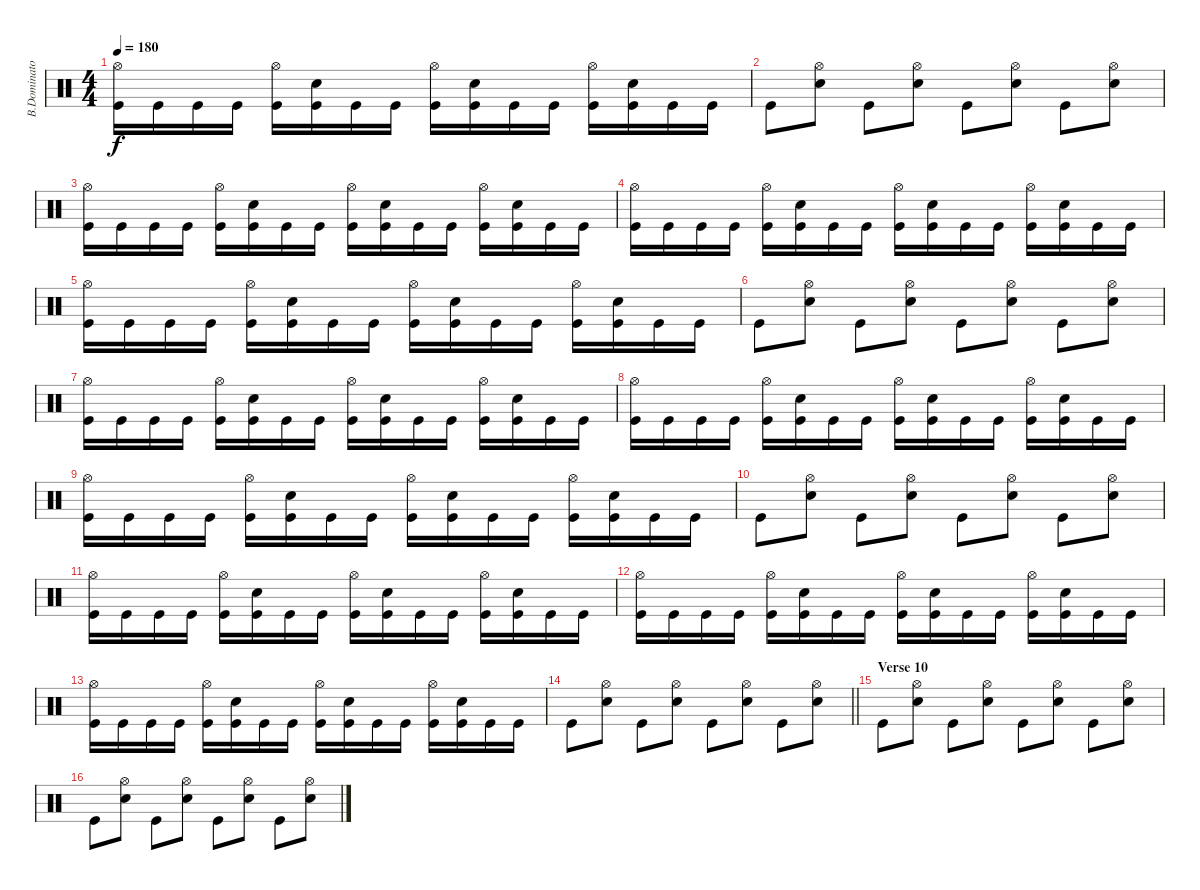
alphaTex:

\track ("B.Dominator" "B.Dominato") {instrument percussion}
\staff {score}
\articulation defaults
\ts (4 4)
\tempo 180
\clef neutral
\ks c
("Hi-Hat (open)" "Kick (hit)").16{dy f} "Kick (hit)".16 "Kick (hit)".16 "Kick (hit)".16 ("Hi-Hat (open)" "Kick (hit)").16 ("Snare (hit) 2" "Kick (hit)").16 "Kick (hit)".16 "Kick (hit)".16 ("Hi-Hat (open)" "Kick (hit)").16 ("Snare (hit) 2" "Kick (hit)").16 "Kick (hit)".16 "Kick (hit)".16 ("Hi-Hat (open)" "Kick (hit)").16 ("Snare (hit) 2" "Kick (hit)").16 "Kick (hit)".16 "Kick (hit)".16 |
"Kick (hit)".8 ("Hi-Hat (open)" "Snare (hit) 2").8 "Kick (hit)".8 ("Hi-Hat (open)" "Snare (hit) 2").8 "Kick (hit)".8 ("Hi-Hat (open)" "Snare (hit) 2").8 "Kick (hit)".8 ("Hi-Hat (open)" "Snare (hit) 2").8 |
("Hi-Hat (open)" "Kick (hit)").16 "Kick (hit)".16 "Kick (hit)".16 "Kick (hit)".16 ("Hi-Hat (open)" "Kick (hit)").16 ("Snare (hit) 2" "Kick (hit)").16 "Kick (hit)".16 "Kick (hit)".16 ("Hi-Hat (open)" "Kick (hit)").16 ("Snare (hit) 2" "Kick (hit)").16 "Kick (hit)".16 "Kick (hit)".16 ("Hi-Hat (open)" "Kick (hit)").16 ("Snare (hit) 2" "Kick (hit)").16 "Kick (hit)".16 "Kick (hit)".16 |
("Hi-Hat (open)" "Kick (hit)").16 "Kick (hit)".16 "Kick (hit)".16 "Kick (hit)".16 ("Hi-Hat (open)" "Kick (hit)").16 ("Snare (hit) 2" "Kick (hit)").16 "Kick (hit)".16 "Kick (hit)".16 ("Hi-Hat (open)" "Kick (hit)").16 ("Snare (hit) 2" "Kick (hit)").16 "Kick (hit)".16 "Kick (hit)".16 ("Hi-Hat (open)" "Kick (hit)").16 ("Snare (hit) 2" "Kick (hit)").16 "Kick (hit)".16 "Kick (hit)".16 |
("Hi-Hat (open)" "Kick (hit)").16 "Kick (hit)".16 "Kick (hit)".16 "Kick (hit)".16 ("Hi-Hat (open)" "Kick (hit)").16 ("Snare (hit) 2" "Kick (hit)").16 "Kick (hit)".16 "Kick (hit)".16 ("Hi-Hat (open)" "Kick (hit)").16 ("Snare (hit) 2" "Kick (hit)").16 "Kick (hit)".16 "Kick (hit)".16 ("Hi-Hat (open)" "Kick (hit)").16 ("Snare (hit) 2" "Kick (hit)").16 "Kick (hit)".16 "Kick (hit)".16 |
"Kick (hit)".8 ("Hi-Hat (open)" "Snare (hit) 2").8 "Kick (hit)".8 ("Hi-Hat (open)" "Snare (hit) 2").8 "Kick (hit)".8 ("Hi-Hat (open)" "Snare (hit) 2").8 "Kick (hit)".8 ("Hi-Hat (open)" "Snare (hit) 2").8 |
("Hi-Hat (open)" "Kick (hit)").16 "Kick (hit)".16 "Kick (hit)".16 "Kick (hit)".16 ("Hi-Hat (open)" "Kick (hit)").16 ("Snare (hit) 2" "Kick (hit)").16 "Kick (hit)".16 "Kick (hit)".16 ("Hi-Hat (open)" "Kick (hit)").16 ("Snare (hit) 2" "Kick (hit)").16 "Kick (hit)".16 "Kick (hit)".16 ("Hi-Hat (open)" "Kick (hit)").16 ("Snare (hit) 2" "Kick (hit)").16 "Kick (hit)".16 "Kick (hit)".16 |
("Hi-Hat (open)" "Kick (hit)").16 "Kick (hit)".16 "Kick (hit)".16 "Kick (hit)".16 ("Hi-Hat (open)" "Kick (hit)").16 ("Snare (hit) 2" "Kick (hit)").16 "Kick (hit)".16 "Kick (hit)".16 ("Hi-Hat (open)" "Kick (hit)").16 ("Snare (hit) 2" "Kick (hit)").16 "Kick (hit)".16 "Kick (hit)".16 ("Hi-Hat (open)" "Kick (hit)").16 ("Snare (hit) 2" "Kick (hit)").16 "Kick (hit)".16 "Kick (hit)".16 |
("Hi-Hat (open)" "Kick (hit)").16 "Kick (hit)".16 "Kick (hit)".16 "Kick (hit)".16 ("Hi-Hat (open)" "Kick (hit)").16 ("Snare (hit) 2" "Kick (hit)").16 "Kick (hit)".16 "Kick (hit)".16 ("Hi-Hat (open)" "Kick (hit)").16 ("Snare (hit) 2" "Kick (hit)").16 "Kick (hit)".16 "Kick (hit)".16 ("Hi-Hat (open)" "Kick (hit)").16 ("Snare (hit) 2" "Kick (hit)").16 "Kick (hit)".16 "Kick (hit)".16 |
"Kick (hit)".8 ("Hi-Hat (open)" "Snare (hit) 2").8 "Kick (hit)".8 ("Hi-Hat (open)" "Snare (hit) 2").8 "Kick (hit)".8 ("Hi-Hat (open)" "Snare (hit) 2").8 "Kick (hit)".8 ("Hi-Hat (open)" "Snare (hit) 2").8 |
("Hi-Hat (open)" "Kick (hit)").16 "Kick (hit)".16 "Kick (hit)".16 "Kick (hit)".16 ("Hi-Hat (open)" "Kick (hit)").16 ("Snare (hit) 2" "Kick (hit)").16 "Kick (hit)".16 "Kick (hit)".16 ("Hi-Hat (open)" "Kick (hit)").16 ("Snare (hit) 2" "Kick (hit)").16 "Kick (hit)".16 "Kick (hit)".16 ("Hi-Hat (open)" "Kick (hit)").16 ("Snare (hit) 2" "Kick (hit)").16 "Kick (hit)".16 "Kick (hit)".16 |
("Hi-Hat (open)" "Kick (hit)").16 "Kick (hit)".16 "Kick (hit)".16 "Kick (hit)".16 ("Hi-Hat (open)" "Kick (hit)").16 ("Snare (hit) 2" "Kick (hit)").16 "Kick (hit)".16 "Kick (hit)".16 ("Hi-Hat (open)" "Kick (hit)").16 ("Snare (hit) 2" "Kick (hit)").16 "Kick (hit)".16 "Kick (hit)".16 ("Hi-Hat (open)" "Kick (hit)").16 ("Snare (hit) 2" "Kick (hit)").16 "Kick (hit)".16 "Kick (hit)".16 |
("Hi-Hat (open)" "Kick (hit)").16 "Kick (hit)".16 "Kick (hit)".16 "Kick (hit)".16 ("Hi-Hat (open)" "Kick (hit)").16 ("Snare (hit) 2" "Kick (hit)").16 "Kick (hit)".16 "Kick (hit)".16 ("Hi-Hat (open)" "Kick (hit)").16 ("Snare (hit) 2" "Kick (hit)").16 "Kick (hit)".16 "Kick (hit)".16 ("Hi-Hat (open)" "Kick (hit)").16 ("Snare (hit) 2" "Kick (hit)").16 "Kick (hit)".16 "Kick (hit)".16 |
\barLineRight lightlight "Kick (hit)".8
("Hi-Hat (open)" "Snare (hit) 2").8 "Kick (hit)".8 ("Hi-Hat (open)" "Snare (hit) 2").8 "Kick (hit)".8 ("Hi-Hat (open)" "Snare (hit) 2").8 "Kick (hit)".8 ("Hi-Hat (open)" "Snare (hit) 2").8 |
\section ("" "Verse 10")
"Kick (hit)".8 ("Hi-Hat (open)" "Snare (hit) 2").8 "Kick (hit)".8 ("Hi-Hat (open)" "Snare (hit) 2").8 "Kick (hit)".8 ("Hi-Hat (open)" "Snare (hit) 2").8 "Kick (hit)".8 ("Hi-Hat (open)" "Snare (hit) 2").8 |
"Kick (hit)".8 ("Hi-Hat (open)" "Snare (hit) 2").8 "Kick (hit)".8 ("Hi-Hat (open)" "Snare (hit) 2").8 "Kick (hit)".8 ("Hi-Hat (open)" "Snare (hit) 2").8 "Kick (hit)".8 ("Hi-Hat (open)" "Snare (hit) 2").8
